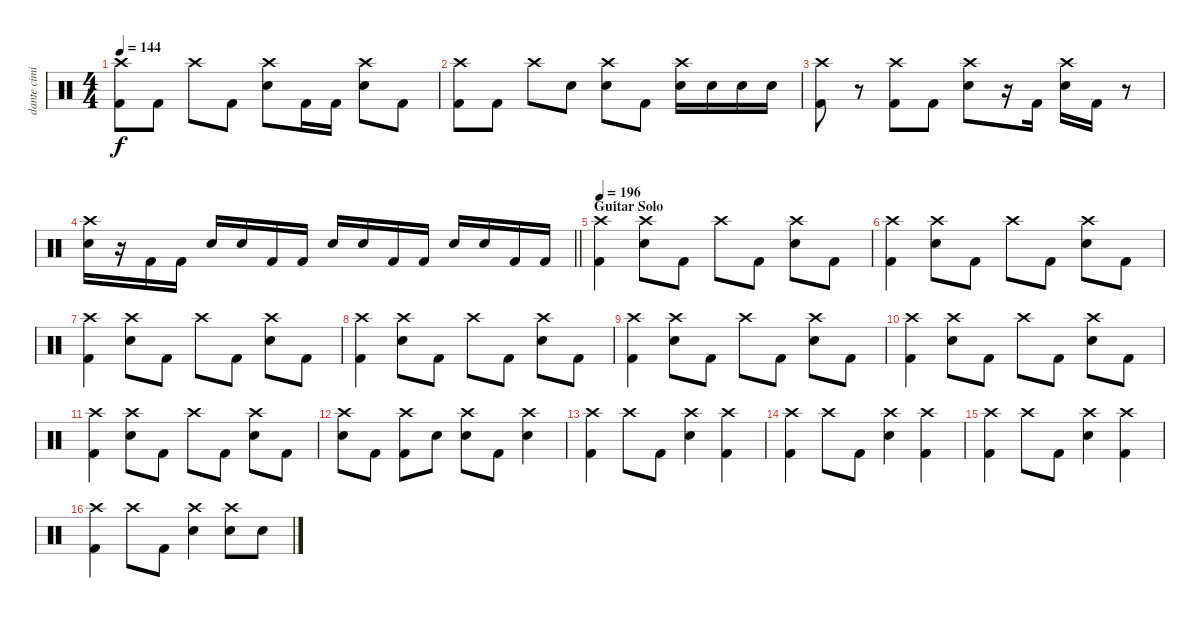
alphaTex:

\track ("dante cimino" "dante cimi") {instrument percussion}
\staff {score}
\articulation defaults
\ts (4 4)
\tempo 144
\clef neutral
\ks c
("Crash high (hit)" "Kick (hit) 2").8{dy f} "Kick (hit) 2".8 "Crash high (hit)".8 "Kick (hit) 2".8 ("Crash high (hit)" "Electric Snare (hit)").8 "Kick (hit) 2".16 "Kick (hit) 2".16 ("Crash high (hit)" "Electric Snare (hit)").8 "Kick (hit) 2".8 |
("Crash high (hit)" "Kick (hit) 2").8 "Kick (hit) 2".8 "Crash high (hit)".8 "Electric Snare (hit)".8 ("Crash high (hit)" "Electric Snare (hit)").8 "Kick (hit) 2".8 ("Crash high (hit)" "Electric Snare (hit)").16 "Electric Snare (hit)".16 "Electric Snare (hit)".16 "Electric Snare (hit)".16 |
("Crash high (hit)" "Kick (hit) 2").8 r.8 ("Crash high (hit)" "Kick (hit) 2").8 "Kick (hit) 2".8 ("Crash high (hit)" "Electric Snare (hit)").8 r.16 "Kick (hit) 2".16 ("Crash high (hit)" "Electric Snare (hit)").16 "Kick (hit) 2".16 r.8 |
\barLineRight lightlight
("Crash high (hit)" "Electric Snare (hit)").16 r.16 "Kick (hit) 2".16 "Kick (hit) 2".16 "Electric Snare (hit)".16 "Electric Snare (hit)".16 "Kick (hit) 2".16 "Kick (hit) 2".16 "Electric Snare (hit)".16 "Electric Snare (hit)".16 "Kick (hit) 2".16 "Kick (hit) 2".16 "Electric Snare (hit)".16 "Electric Snare (hit)".16 "Kick (hit) 2".16 "Kick (hit) 2".16 |
\section ("" "Guitar Solo")
\tempo 196
("Crash high (hit)" "Kick (hit) 2").4 ("Crash high (hit)" "Electric Snare (hit)").8 "Kick (hit) 2".8 "Crash high (hit)".8 "Kick (hit) 2".8 ("Crash high (hit)" "Electric Snare (hit)").8 "Kick (hit) 2".8 |
("Crash high (hit)" "Kick (hit) 2").4 ("Crash high (hit)" "Electric Snare (hit)").8 "Kick (hit) 2".8 "Crash high (hit)".8 "Kick (hit) 2".8 ("Crash high (hit)" "Electric Snare (hit)").8 "Kick (hit) 2".8 |
("Crash high (hit)" "Kick (hit) 2").4 ("Crash high (hit)" "Electric Snare (hit)").8 "Kick (hit) 2".8 "Crash high (hit)".8 "Kick (hit) 2".8 ("Crash high (hit)" "Electric Snare (hit)").8 "Kick (hit) 2".8 |
("Crash high (hit)" "Kick (hit) 2").4 ("Crash high (hit)" "Electric Snare (hit)").8 "Kick (hit) 2".8 "Crash high (hit)".8 "Kick (hit) 2".8 ("Crash high (hit)" "Electric Snare (hit)").8 "Kick (hit) 2".8 |
("Crash high (hit)" "Kick (hit) 2").4 ("Crash high (hit)" "Electric Snare (hit)").8 "Kick (hit) 2".8 "Crash high (hit)".8 "Kick (hit) 2".8 ("Crash high (hit)" "Electric Snare (hit)").8 "Kick (hit) 2".8 |
("Crash high (hit)" "Kick (hit) 2").4 ("Crash high (hit)" "Electric Snare (hit)").8 "Kick (hit) 2".8 "Crash high (hit)".8 "Kick (hit) 2".8 ("Crash high (hit)" "Electric Snare (hit)").8 "Kick (hit) 2".8 |
("Crash high (hit)" "Kick (hit) 2").4 ("Crash high (hit)" "Electric Snare (hit)").8 "Kick (hit) 2".8 "Crash high (hit)".8 "Kick (hit) 2".8 ("Crash high (hit)" "Electric Snare (hit)").8 "Kick (hit) 2".8 |
("Crash high (hit)" "Electric Snare (hit)").8 "Kick (hit) 2".8 ("Crash high (hit)" "Kick (hit) 2").8 "Electric Snare (hit)".8 ("Crash high (hit)" "Electric Snare (hit)").8 "Kick (hit) 2".8 ("Crash high (hit)" "Electric Snare (hit)").4 |
("Crash high (hit)" "Kick (hit) 2").4 "Crash high (hit)".8 "Kick (hit) 2".8 ("Crash high (hit)" "Electric Snare (hit)").4 ("Crash high (hit)" "Kick (hit) 2").4 |
("Crash high (hit)" "Kick (hit) 2").4 "Crash high (hit)".8 "Kick (hit) 2".8 ("Crash high (hit)" "Electric Snare (hit)").4 ("Crash high (hit)" "Kick (hit) 2").4 |
("Crash high (hit)" "Kick (hit) 2").4 "Crash high (hit)".8 "Kick (hit) 2".8 ("Crash high (hit)" "Electric Snare (hit)").4 ("Crash high (hit)" "Kick (hit) 2").4 |
("Crash high (hit)" "Kick (hit) 2").4 "Crash high (hit)".8 "Kick (hit) 2".8 ("Crash high (hit)" "Electric Snare (hit)").4 ("Crash high (hit)" "Electric Snare (hit)").8 "Electric Snare (hit)".8
